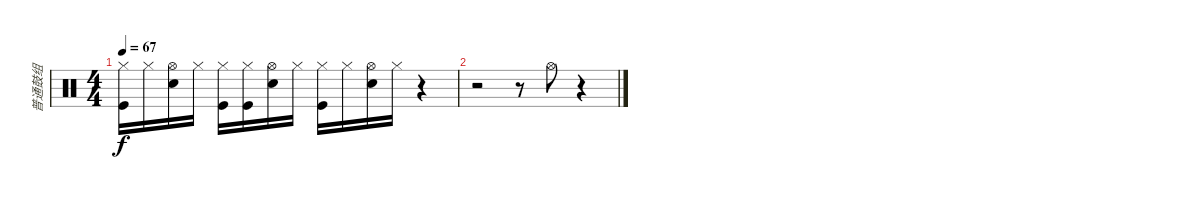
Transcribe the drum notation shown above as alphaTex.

\track ("普通鼓组" "普通鼓组") {instrument percussion}
\staff {score}
\articulation defaults
\ts (4 4)
\tempo 67
\clef neutral
\ks c
("Hi-Hat (closed)" "Kick (hit)").16{dy f} "Hi-Hat (closed)".16 ("Hi-Hat (open)" "Snare (hit) 2").16 "Hi-Hat (closed)".16 ("Hi-Hat (closed)" "Kick (hit)").16 ("Hi-Hat (closed)" "Kick (hit)").16 ("Hi-Hat (open)" "Snare (hit) 2").16 "Hi-Hat (closed)".16 ("Hi-Hat (closed)" "Kick (hit)").16 "Hi-Hat (closed)".16 ("Hi-Hat (open)" "Snare (hit) 2").16 "Hi-Hat (closed)".16 r.4 |
r.2 r.8 "Hi-Hat (open)".8 r.4
